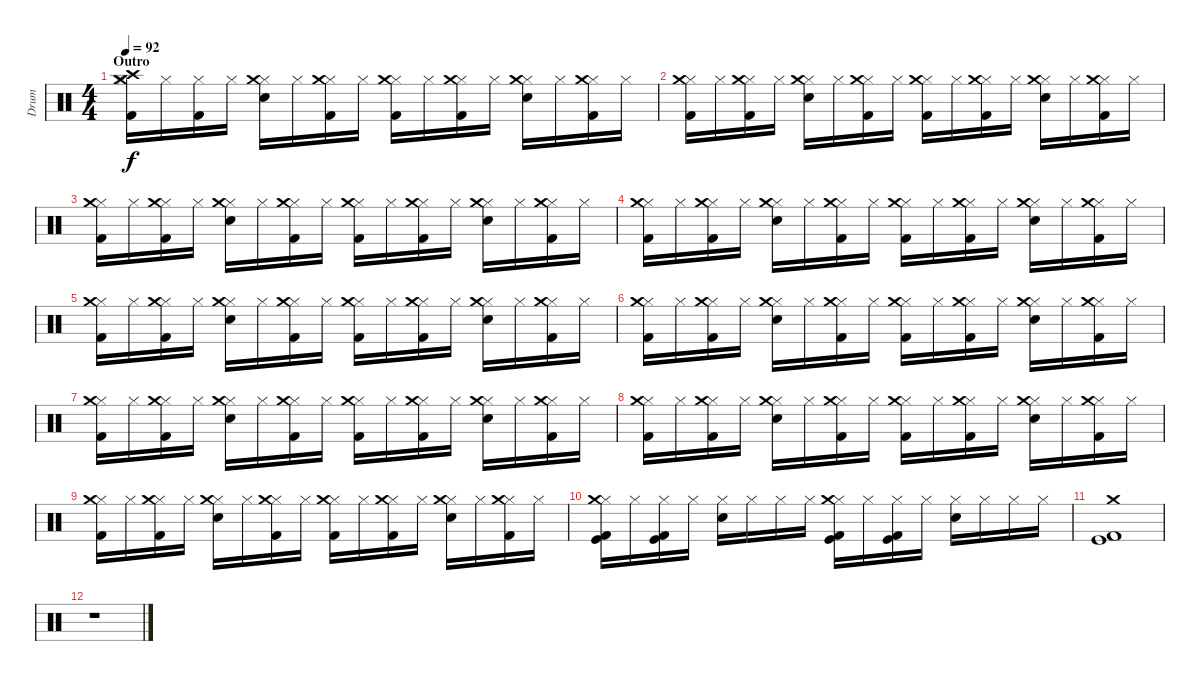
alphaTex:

\track ("Drum" "Drum") {instrument percussion}
\staff {score}
\articulation defaults
\ts (4 4)
\section ("" "Outro")
\tempo 92
\clef neutral
\ks c
("Hi-Hat (closed)" "Crash medium (hit)" "Crash high (hit)" "Kick (hit) 2").16{dy f} "Hi-Hat (closed)".16 ("Hi-Hat (closed)" "Kick (hit) 2").16 "Hi-Hat (closed)".16 ("Hi-Hat (closed)" "Crash medium (hit)" "Snare (hit) 2").16 "Hi-Hat (closed)".16 ("Hi-Hat (closed)" "Crash medium (hit)" "Kick (hit) 2").16 "Hi-Hat (closed)".16 ("Hi-Hat (closed)" "Crash medium (hit)" "Kick (hit) 2").16 "Hi-Hat (closed)".16 ("Hi-Hat (closed)" "Crash medium (hit)" "Kick (hit) 2").16 "Hi-Hat (closed)".16 ("Hi-Hat (closed)" "Crash medium (hit)" "Snare (hit) 2").16 "Hi-Hat (closed)".16 ("Hi-Hat (closed)" "Crash medium (hit)" "Kick (hit) 2").16 "Hi-Hat (closed)".16 |
("Hi-Hat (closed)" "Crash medium (hit)" "Kick (hit) 2").16 "Hi-Hat (closed)".16 ("Hi-Hat (closed)" "Crash medium (hit)" "Kick (hit) 2").16 "Hi-Hat (closed)".16 ("Hi-Hat (closed)" "Crash medium (hit)" "Snare (hit) 2").16 "Hi-Hat (closed)".16 ("Hi-Hat (closed)" "Crash medium (hit)" "Kick (hit) 2").16 "Hi-Hat (closed)".16 ("Hi-Hat (closed)" "Crash medium (hit)" "Kick (hit) 2").16 "Hi-Hat (closed)".16 ("Hi-Hat (closed)" "Crash medium (hit)" "Kick (hit) 2").16 "Hi-Hat (closed)".16 ("Hi-Hat (closed)" "Crash medium (hit)" "Snare (hit) 2").16 "Hi-Hat (closed)".16 ("Hi-Hat (closed)" "Crash medium (hit)" "Kick (hit) 2").16 "Hi-Hat (closed)".16 |
("Hi-Hat (closed)" "Crash medium (hit)" "Kick (hit) 2").16 "Hi-Hat (closed)".16 ("Hi-Hat (closed)" "Crash medium (hit)" "Kick (hit) 2").16 "Hi-Hat (closed)".16 ("Hi-Hat (closed)" "Crash medium (hit)" "Snare (hit) 2").16 "Hi-Hat (closed)".16 ("Hi-Hat (closed)" "Crash medium (hit)" "Kick (hit) 2").16 "Hi-Hat (closed)".16 ("Hi-Hat (closed)" "Crash medium (hit)" "Kick (hit) 2").16 "Hi-Hat (closed)".16 ("Hi-Hat (closed)" "Crash medium (hit)" "Kick (hit) 2").16 "Hi-Hat (closed)".16 ("Hi-Hat (closed)" "Crash medium (hit)" "Snare (hit) 2").16 "Hi-Hat (closed)".16 ("Hi-Hat (closed)" "Crash medium (hit)" "Kick (hit) 2").16 "Hi-Hat (closed)".16 |
("Hi-Hat (closed)" "Crash medium (hit)" "Kick (hit) 2").16 "Hi-Hat (closed)".16 ("Hi-Hat (closed)" "Crash medium (hit)" "Kick (hit) 2").16 "Hi-Hat (closed)".16 ("Hi-Hat (closed)" "Crash medium (hit)" "Snare (hit) 2").16 "Hi-Hat (closed)".16 ("Hi-Hat (closed)" "Crash medium (hit)" "Kick (hit) 2").16 "Hi-Hat (closed)".16 ("Hi-Hat (closed)" "Crash medium (hit)" "Kick (hit) 2").16 "Hi-Hat (closed)".16 ("Hi-Hat (closed)" "Crash medium (hit)" "Kick (hit) 2").16 "Hi-Hat (closed)".16 ("Hi-Hat (closed)" "Crash medium (hit)" "Snare (hit) 2").16 "Hi-Hat (closed)".16 ("Hi-Hat (closed)" "Crash medium (hit)" "Kick (hit) 2").16 "Hi-Hat (closed)".16 |
("Hi-Hat (closed)" "Crash medium (hit)" "Kick (hit) 2").16 "Hi-Hat (closed)".16 ("Hi-Hat (closed)" "Crash medium (hit)" "Kick (hit) 2").16 "Hi-Hat (closed)".16 ("Hi-Hat (closed)" "Crash medium (hit)" "Snare (hit) 2").16 "Hi-Hat (closed)".16 ("Hi-Hat (closed)" "Crash medium (hit)" "Kick (hit) 2").16 "Hi-Hat (closed)".16 ("Hi-Hat (closed)" "Crash medium (hit)" "Kick (hit) 2").16 "Hi-Hat (closed)".16 ("Hi-Hat (closed)" "Crash medium (hit)" "Kick (hit) 2").16 "Hi-Hat (closed)".16 ("Hi-Hat (closed)" "Crash medium (hit)" "Snare (hit) 2").16 "Hi-Hat (closed)".16 ("Hi-Hat (closed)" "Crash medium (hit)" "Kick (hit) 2").16 "Hi-Hat (closed)".16 |
("Hi-Hat (closed)" "Crash medium (hit)" "Kick (hit) 2").16 "Hi-Hat (closed)".16 ("Hi-Hat (closed)" "Crash medium (hit)" "Kick (hit) 2").16 "Hi-Hat (closed)".16 ("Hi-Hat (closed)" "Crash medium (hit)" "Snare (hit) 2").16 "Hi-Hat (closed)".16 ("Hi-Hat (closed)" "Crash medium (hit)" "Kick (hit) 2").16 "Hi-Hat (closed)".16 ("Hi-Hat (closed)" "Crash medium (hit)" "Kick (hit) 2").16 "Hi-Hat (closed)".16 ("Hi-Hat (closed)" "Crash medium (hit)" "Kick (hit) 2").16 "Hi-Hat (closed)".16 ("Hi-Hat (closed)" "Crash medium (hit)" "Snare (hit) 2").16 "Hi-Hat (closed)".16 ("Hi-Hat (closed)" "Crash medium (hit)" "Kick (hit) 2").16 "Hi-Hat (closed)".16 |
("Hi-Hat (closed)" "Crash medium (hit)" "Kick (hit) 2").16 "Hi-Hat (closed)".16 ("Hi-Hat (closed)" "Crash medium (hit)" "Kick (hit) 2").16 "Hi-Hat (closed)".16 ("Hi-Hat (closed)" "Crash medium (hit)" "Snare (hit) 2").16 "Hi-Hat (closed)".16 ("Hi-Hat (closed)" "Crash medium (hit)" "Kick (hit) 2").16 "Hi-Hat (closed)".16 ("Hi-Hat (closed)" "Crash medium (hit)" "Kick (hit) 2").16 "Hi-Hat (closed)".16 ("Hi-Hat (closed)" "Crash medium (hit)" "Kick (hit) 2").16 "Hi-Hat (closed)".16 ("Hi-Hat (closed)" "Crash medium (hit)" "Snare (hit) 2").16 "Hi-Hat (closed)".16 ("Hi-Hat (closed)" "Crash medium (hit)" "Kick (hit) 2").16 "Hi-Hat (closed)".16 |
("Hi-Hat (closed)" "Crash medium (hit)" "Kick (hit) 2").16 "Hi-Hat (closed)".16 ("Hi-Hat (closed)" "Crash medium (hit)" "Kick (hit) 2").16 "Hi-Hat (closed)".16 ("Hi-Hat (closed)" "Crash medium (hit)" "Snare (hit) 2").16 "Hi-Hat (closed)".16 ("Hi-Hat (closed)" "Crash medium (hit)" "Kick (hit) 2").16 "Hi-Hat (closed)".16 ("Hi-Hat (closed)" "Crash medium (hit)" "Kick (hit) 2").16 "Hi-Hat (closed)".16 ("Hi-Hat (closed)" "Crash medium (hit)" "Kick (hit) 2").16 "Hi-Hat (closed)".16 ("Hi-Hat (closed)" "Crash medium (hit)" "Snare (hit) 2").16 "Hi-Hat (closed)".16 ("Hi-Hat (closed)" "Crash medium (hit)" "Kick (hit) 2").16 "Hi-Hat (closed)".16 |
("Hi-Hat (closed)" "Crash medium (hit)" "Kick (hit) 2").16 "Hi-Hat (closed)".16 ("Hi-Hat (closed)" "Crash medium (hit)" "Kick (hit) 2").16 "Hi-Hat (closed)".16 ("Hi-Hat (closed)" "Crash medium (hit)" "Snare (hit) 2").16 "Hi-Hat (closed)".16 ("Hi-Hat (closed)" "Crash medium (hit)" "Kick (hit) 2").16 "Hi-Hat (closed)".16 ("Hi-Hat (closed)" "Crash medium (hit)" "Kick (hit) 2").16 "Hi-Hat (closed)".16 ("Hi-Hat (closed)" "Crash medium (hit)" "Kick (hit) 2").16 "Hi-Hat (closed)".16 ("Hi-Hat (closed)" "Crash medium (hit)" "Snare (hit) 2").16 "Hi-Hat (closed)".16 ("Hi-Hat (closed)" "Crash medium (hit)" "Kick (hit) 2").16 "Hi-Hat (closed)".16 |
("Hi-Hat (closed)" "Crash medium (hit)" "Kick (hit)" "Kick (hit) 2").16 "Hi-Hat (closed)".16 ("Hi-Hat (closed)" "Kick (hit)" "Kick (hit) 2").16 "Hi-Hat (closed)".16 ("Hi-Hat (closed)" "Snare (hit) 2").16 "Hi-Hat (closed)".16 "Hi-Hat (closed)".16 "Hi-Hat (closed)".16 ("Hi-Hat (closed)" "Crash medium (hit)" "Kick (hit)" "Kick (hit) 2").16 "Hi-Hat (closed)".16 ("Hi-Hat (closed)" "Kick (hit)" "Kick (hit) 2").16 "Hi-Hat (closed)".16 ("Hi-Hat (closed)" "Snare (hit) 2").16 "Hi-Hat (closed)".16 "Hi-Hat (closed)".16 "Hi-Hat (closed)".16 |
("Crash medium (hit)" "Kick (hit)" "Kick (hit) 2").1 |
r.1
